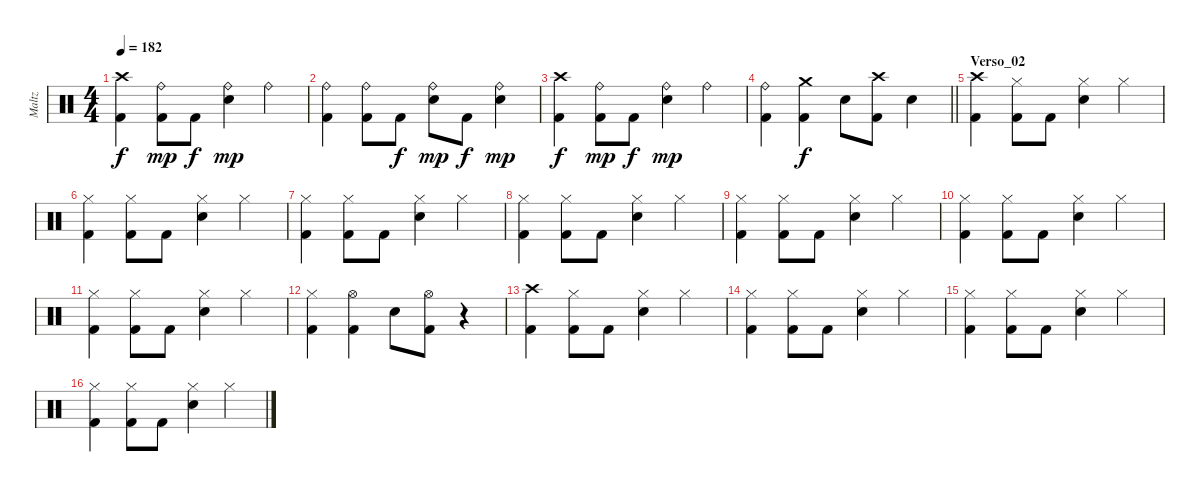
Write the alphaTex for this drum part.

\track ("Maltz" "Maltz") {instrument percussion}
\staff {score}
\articulation defaults
\ts (4 4)
\tempo 182
\clef neutral
\ks c
("Crash high (hit)" "Kick (hit) 2").4{dy f} ("Ride (bell)" "Kick (hit) 2").8{dy mp} "Kick (hit) 2".8{dy f} ("Ride (bell)" "Electric Snare (hit)").4{dy mp} "Ride (bell)".4 |
("Ride (bell)" "Kick (hit) 2").4 ("Ride (bell)" "Kick (hit) 2").8 "Kick (hit) 2".8{dy f} ("Ride (bell)" "Electric Snare (hit)").8{dy mp} "Kick (hit) 2".8{dy f} ("Ride (bell)" "Electric Snare (hit)").4{dy mp} |
("Crash high (hit)" "Kick (hit) 2").4{dy f} ("Ride (bell)" "Kick (hit) 2").8{dy mp} "Kick (hit) 2".8{dy f} ("Ride (bell)" "Electric Snare (hit)").4{dy mp} "Ride (bell)".4 |
\barLineRight lightlight
("Ride (bell)" "Kick (hit) 2").4 ("Crash medium (hit)" "Kick (hit) 2").4{dy f} "Electric Snare (hit)".8 ("Crash high (hit)" "Kick (hit) 2").8 "Electric Snare (hit)".4 |
\section ("" "Verso_02")
("Crash high (hit)" "Kick (hit) 2").4 ("Hi-Hat (closed)" "Kick (hit) 2").8 "Kick (hit) 2".8 ("Hi-Hat (closed)" "Electric Snare (hit)").4 "Hi-Hat (closed)".4 |
("Hi-Hat (closed)" "Kick (hit) 2").4 ("Hi-Hat (closed)" "Kick (hit) 2").8 "Kick (hit) 2".8 ("Hi-Hat (closed)" "Electric Snare (hit)").4 "Hi-Hat (closed)".4 |
("Hi-Hat (closed)" "Kick (hit) 2").4 ("Hi-Hat (closed)" "Kick (hit) 2").8 "Kick (hit) 2".8 ("Hi-Hat (closed)" "Electric Snare (hit)").4 "Hi-Hat (closed)".4 |
("Hi-Hat (closed)" "Kick (hit) 2").4 ("Hi-Hat (closed)" "Kick (hit) 2").8 "Kick (hit) 2".8 ("Hi-Hat (closed)" "Electric Snare (hit)").4 "Hi-Hat (closed)".4 |
("Hi-Hat (closed)" "Kick (hit) 2").4 ("Hi-Hat (closed)" "Kick (hit) 2").8 "Kick (hit) 2".8 ("Hi-Hat (closed)" "Electric Snare (hit)").4 "Hi-Hat (closed)".4 |
("Hi-Hat (closed)" "Kick (hit) 2").4 ("Hi-Hat (closed)" "Kick (hit) 2").8 "Kick (hit) 2".8 ("Hi-Hat (closed)" "Electric Snare (hit)").4 "Hi-Hat (closed)".4 |
("Hi-Hat (closed)" "Kick (hit) 2").4 ("Hi-Hat (closed)" "Kick (hit) 2").8 "Kick (hit) 2".8 ("Hi-Hat (closed)" "Electric Snare (hit)").4 "Hi-Hat (closed)".4 |
("Hi-Hat (closed)" "Kick (hit) 2").4 ("Hi-Hat (open)" "Kick (hit) 2").4 "Electric Snare (hit)".8 ("Hi-Hat (open)" "Kick (hit) 2").8 r.4 |
("Crash high (hit)" "Kick (hit) 2").4 ("Hi-Hat (closed)" "Kick (hit) 2").8 "Kick (hit) 2".8 ("Hi-Hat (closed)" "Electric Snare (hit)").4 "Hi-Hat (closed)".4 |
("Hi-Hat (closed)" "Kick (hit) 2").4 ("Hi-Hat (closed)" "Kick (hit) 2").8 "Kick (hit) 2".8 ("Hi-Hat (closed)" "Electric Snare (hit)").4 "Hi-Hat (closed)".4 |
("Hi-Hat (closed)" "Kick (hit) 2").4 ("Hi-Hat (closed)" "Kick (hit) 2").8 "Kick (hit) 2".8 ("Hi-Hat (closed)" "Electric Snare (hit)").4 "Hi-Hat (closed)".4 |
("Hi-Hat (closed)" "Kick (hit) 2").4 ("Hi-Hat (closed)" "Kick (hit) 2").8 "Kick (hit) 2".8 ("Hi-Hat (closed)" "Electric Snare (hit)").4 "Hi-Hat (closed)".4
